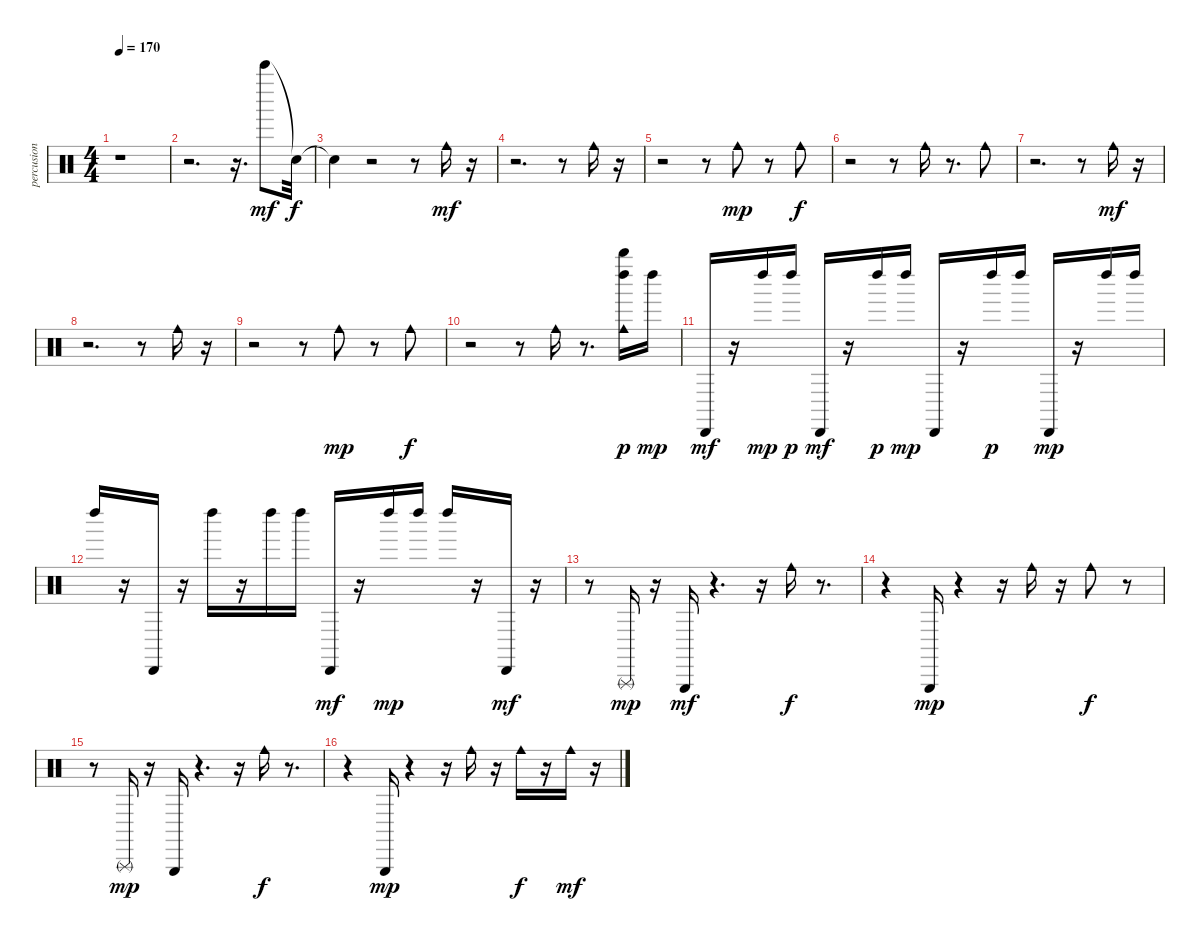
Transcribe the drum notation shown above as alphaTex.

\track ("percusion" "percusion") {instrument percussion}
\staff {score}
\articulation defaults
\ts (4 4)
\tempo 170
\clef neutral
\ks c
r.1{dy mf} |
r.2{d} r.16{d} "Bell Tree (hit)".8 "Snare (hit)"{t}.32{dy f} |
"Snare (hit)"{t}.4 r.2 r.8 "Cowbell medium (hit)".16{dy mf} r.16 |
r.2{d} r.8 "Cowbell medium (hit)".16 r.16 |
r.2 r.8 "Cowbell medium (hit)".8{dy mp} r.8 "Cowbell medium (hit)".8{dy f} |
r.2 r.8 "Cowbell medium (hit)".16 r.8{d} "Cowbell medium (hit)".8 |
r.2{d} r.8 "Cowbell medium (hit)".16{dy mf} r.16 |
r.2{d} r.8 "Cowbell medium (hit)".16 r.16 |
r.2 r.8 "Cowbell medium (hit)".8{dy mp} r.8 "Cowbell medium (hit)".8{dy f} |
r.2 r.8 "Cowbell medium (hit)".16 r.8{d} ("Cowbell medium (hit)" "Whistle high (hit)" "Left Maraca (hit)").16{dy p} "Left Maraca (hit)".16{dy mp} |
"Cabasa (hit)".16{dy mf} r.16 "Left Maraca (hit)".16{dy mp} "Left Maraca (hit)".16{dy p} "Cabasa (hit)".16{dy mf} r.16 "Left Maraca (hit)".16{dy p} "Left Maraca (hit)".16{dy mp} "Cabasa (hit)".16 r.16 "Left Maraca (hit)".16{dy p} "Left Maraca (hit)".16 "Cabasa (hit)".16{dy mp} r.16 "Left Maraca (hit)".16 "Left Maraca (hit)".16 |
"Left Maraca (hit)".16 r.16 "Cabasa (hit)".16 r.16 "Left Maraca (hit)".16 r.16 "Left Maraca (hit)".16 "Left Maraca (hit)".16 "Cabasa (hit)".16{dy mf} r.16 "Left Maraca (hit)".16{dy mp} "Left Maraca (hit)".16 "Left Maraca (hit)".16 r.16 "Cabasa (hit)".16{dy mf} r.16 |
r.8 "Triangle (rnute)".16{dy mp} r.16 "Triangle (hit)".16{dy mf} r.4{d} r.16 "Cowbell medium (hit)".16{dy f} r.8{d} |
r.4 "Triangle (hit)".16{dy mp} r.4 r.16 "Cowbell medium (hit)".16 r.16 "Cowbell medium (hit)".8{dy f} r.8 |
r.8 "Triangle (rnute)".16{dy mp} r.16 "Triangle (hit)".16 r.4{d} r.16 "Cowbell medium (hit)".16{dy f} r.8{d} |
r.4 "Triangle (hit)".16{dy mp} r.4 r.16 "Cowbell medium (hit)".16 r.16 "Cowbell medium (hit)".16{dy f} r.16 "Cowbell medium (hit)".16{dy mf} r.16
